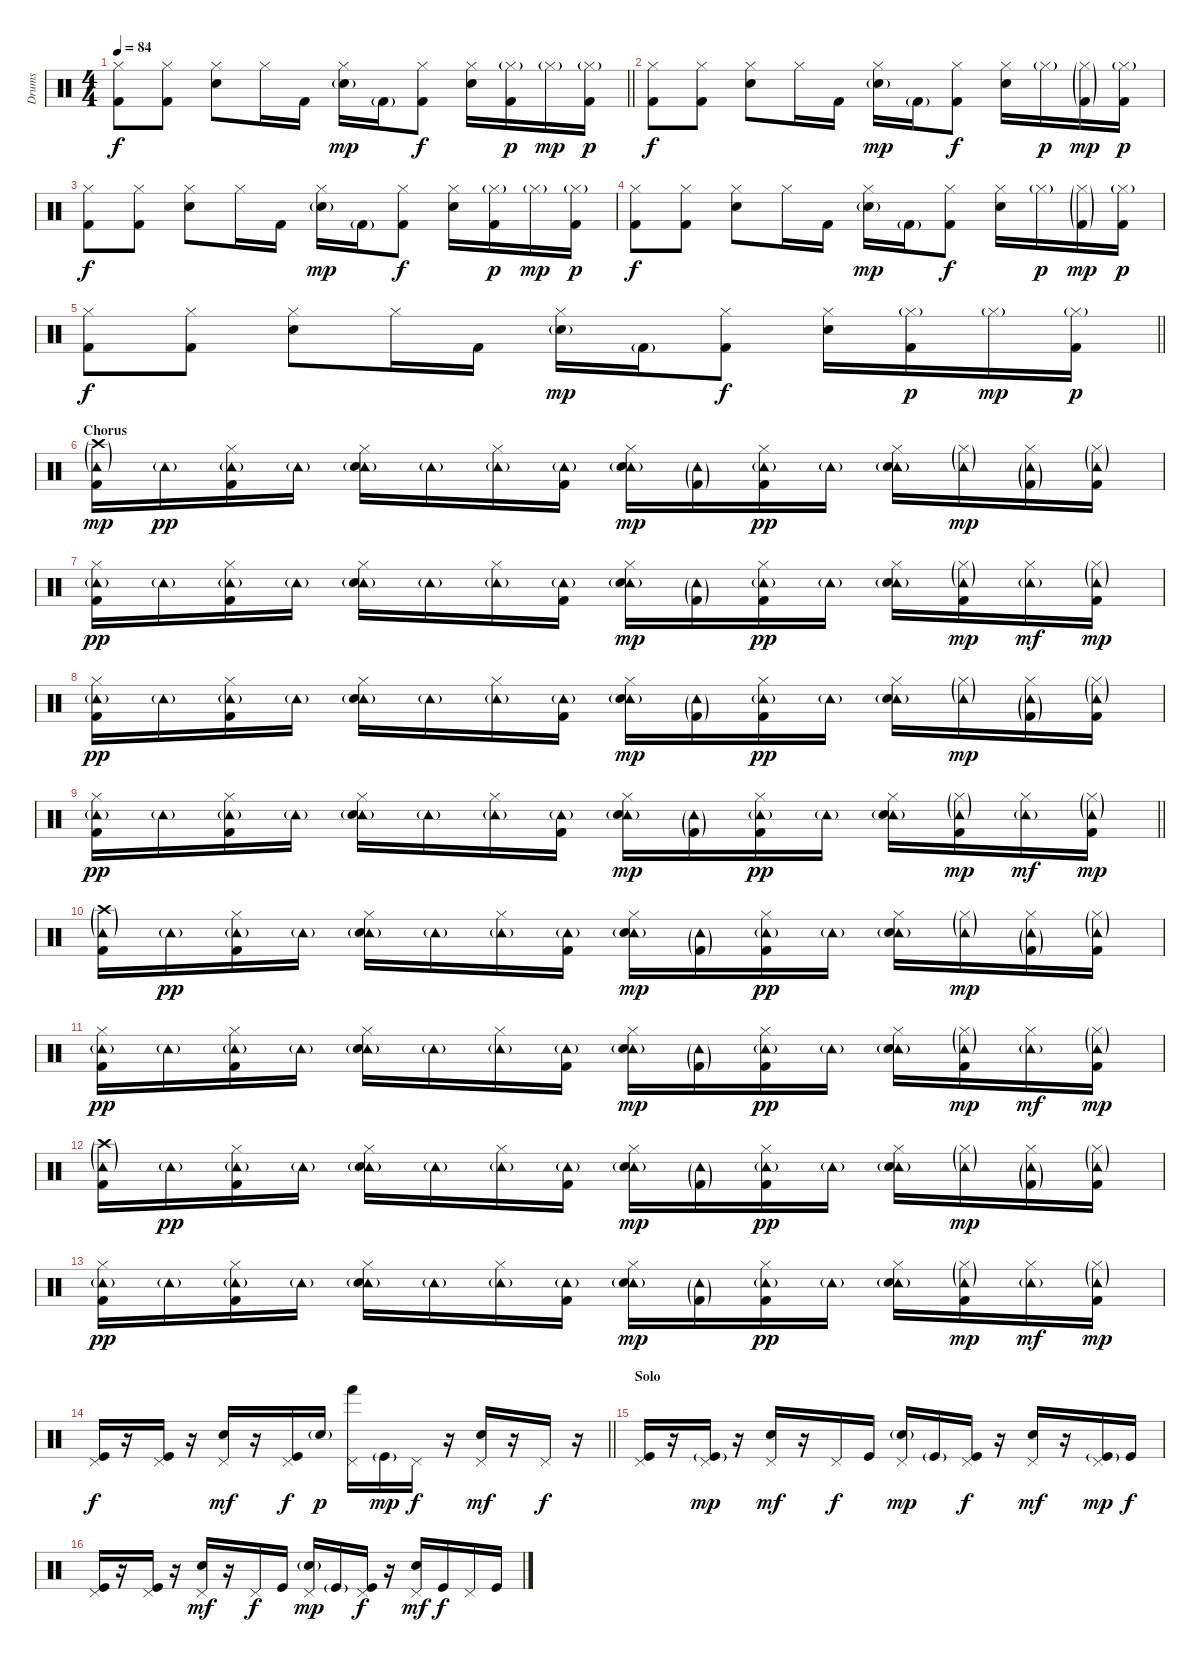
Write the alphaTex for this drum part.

\track ("Drums" "Drums") {instrument percussion}
\staff {score}
\articulation defaults
\ts (4 4)
\tempo 84
\clef neutral
\barLineRight lightlight
\ks c
("Hi-Hat (closed)" "Kick (hit) 2").8{dy f} ("Hi-Hat (closed)" "Kick (hit) 2").8 ("Hi-Hat (closed)" "Electric Snare (hit)").8 "Hi-Hat (closed)".16 "Kick (hit) 2".16 ("Hi-Hat (closed)" "Electric Snare (hit)"{g}).16{dy mp} "Kick (hit) 2"{g}.16 ("Hi-Hat (closed)" "Kick (hit) 2").8{dy f} ("Hi-Hat (closed)" "Electric Snare (hit)").16 ("Hi-Hat (closed)"{g} "Kick (hit) 2").16{dy p} "Hi-Hat (closed)"{g}.16{dy mp} ("Hi-Hat (closed)"{g} "Kick (hit) 2").16{dy p} |
("Hi-Hat (closed)" "Kick (hit) 2").8{dy f} ("Hi-Hat (closed)" "Kick (hit) 2").8 ("Hi-Hat (closed)" "Electric Snare (hit)").8 "Hi-Hat (closed)".16 "Kick (hit) 2".16 ("Hi-Hat (closed)" "Electric Snare (hit)"{g}).16{dy mp} "Kick (hit) 2"{g}.16 ("Hi-Hat (closed)" "Kick (hit) 2").8{dy f} ("Hi-Hat (closed)" "Electric Snare (hit)").16 "Hi-Hat (closed)"{g}.16{dy p} ("Hi-Hat (closed)"{g} "Kick (hit) 2"{g}).16{dy mp} ("Hi-Hat (closed)"{g} "Kick (hit) 2").16{dy p} |
("Hi-Hat (closed)" "Kick (hit) 2").8{dy f} ("Hi-Hat (closed)" "Kick (hit) 2").8 ("Hi-Hat (closed)" "Electric Snare (hit)").8 "Hi-Hat (closed)".16 "Kick (hit) 2".16 ("Hi-Hat (closed)" "Electric Snare (hit)"{g}).16{dy mp} "Kick (hit) 2"{g}.16 ("Hi-Hat (closed)" "Kick (hit) 2").8{dy f} ("Hi-Hat (closed)" "Electric Snare (hit)").16 ("Hi-Hat (closed)"{g} "Kick (hit) 2").16{dy p} "Hi-Hat (closed)"{g}.16{dy mp} ("Hi-Hat (closed)"{g} "Kick (hit) 2").16{dy p} |
("Hi-Hat (closed)" "Kick (hit) 2").8{dy f} ("Hi-Hat (closed)" "Kick (hit) 2").8 ("Hi-Hat (closed)" "Electric Snare (hit)").8 "Hi-Hat (closed)".16 "Kick (hit) 2".16 ("Hi-Hat (closed)" "Electric Snare (hit)"{g}).16{dy mp} "Kick (hit) 2"{g}.16 ("Hi-Hat (closed)" "Kick (hit) 2").8{dy f} ("Hi-Hat (closed)" "Electric Snare (hit)").16 "Hi-Hat (closed)"{g}.16{dy p} ("Hi-Hat (closed)"{g} "Kick (hit) 2"{g}).16{dy mp} ("Hi-Hat (closed)"{g} "Kick (hit) 2").16{dy p} |
\barLineRight lightlight
("Hi-Hat (closed)" "Kick (hit) 2").8{dy f} ("Hi-Hat (closed)" "Kick (hit) 2").8 ("Hi-Hat (closed)" "Electric Snare (hit)").8 "Hi-Hat (closed)".16 "Kick (hit) 2".16 ("Hi-Hat (closed)" "Electric Snare (hit)"{g}).16{dy mp} "Kick (hit) 2"{g}.16 ("Hi-Hat (closed)" "Kick (hit) 2").8{dy f} ("Hi-Hat (closed)" "Electric Snare (hit)").16 ("Hi-Hat (closed)"{g} "Kick (hit) 2").16{dy p} "Hi-Hat (closed)"{g}.16{dy mp} ("Hi-Hat (closed)"{g} "Kick (hit) 2").16{dy p} |
\section ("" "Chorus")
("Tambourine (hit)"{g} "Crash high (hit)"{g} "Kick (hit) 2").16{dy mp} "Tambourine (hit)"{g}.16{dy pp} ("Tambourine (hit)"{g} "Hi-Hat (closed)" "Kick (hit) 2").16 "Tambourine (hit)"{g}.16 ("Tambourine (hit)"{g} "Hi-Hat (closed)" "Electric Snare (hit)").16 "Tambourine (hit)"{g}.16 ("Tambourine (hit)"{g} "Hi-Hat (closed)").16 ("Tambourine (hit)"{g} "Kick (hit) 2").16 ("Tambourine (hit)"{g} "Hi-Hat (closed)" "Electric Snare (hit)"{g}).16{dy mp} ("Tambourine (hit)"{g} "Kick (hit) 2"{g}).16 ("Tambourine (hit)"{g} "Hi-Hat (closed)" "Kick (hit) 2").16{dy pp} "Tambourine (hit)"{g}.16 ("Tambourine (hit)"{g} "Hi-Hat (closed)" "Electric Snare (hit)").16 ("Tambourine (hit)"{g} "Hi-Hat (closed)"{g}).16{dy mp} ("Tambourine (hit)"{g} "Hi-Hat (closed)" "Kick (hit) 2"{g}).16 ("Tambourine (hit)"{g} "Hi-Hat (closed)"{g} "Kick (hit) 2").16 |
("Tambourine (hit)"{g} "Hi-Hat (closed)" "Kick (hit) 2").16{dy pp} "Tambourine (hit)"{g}.16 ("Tambourine (hit)"{g} "Hi-Hat (closed)" "Kick (hit) 2").16 "Tambourine (hit)"{g}.16 ("Tambourine (hit)"{g} "Hi-Hat (closed)" "Electric Snare (hit)").16 "Tambourine (hit)"{g}.16 ("Tambourine (hit)"{g} "Hi-Hat (closed)").16 ("Tambourine (hit)"{g} "Kick (hit) 2").16 ("Tambourine (hit)"{g} "Hi-Hat (closed)" "Electric Snare (hit)"{g}).16{dy mp} ("Tambourine (hit)"{g} "Kick (hit) 2"{g}).16 ("Tambourine (hit)"{g} "Hi-Hat (closed)" "Kick (hit) 2").16{dy pp} "Tambourine (hit)"{g}.16 ("Tambourine (hit)"{g} "Hi-Hat (closed)" "Electric Snare (hit)").16 ("Tambourine (hit)"{g} "Hi-Hat (closed)"{g} "Kick (hit) 2").16{dy mp} ("Tambourine (hit)"{g} "Hi-Hat (closed)").16{dy mf} ("Tambourine (hit)"{g} "Hi-Hat (closed)"{g} "Kick (hit) 2").16{dy mp} |
("Tambourine (hit)"{g} "Hi-Hat (closed)" "Kick (hit) 2").16{dy pp} "Tambourine (hit)"{g}.16 ("Tambourine (hit)"{g} "Hi-Hat (closed)" "Kick (hit) 2").16 "Tambourine (hit)"{g}.16 ("Tambourine (hit)"{g} "Hi-Hat (closed)" "Electric Snare (hit)").16 "Tambourine (hit)"{g}.16 ("Tambourine (hit)"{g} "Hi-Hat (closed)").16 ("Tambourine (hit)"{g} "Kick (hit) 2").16 ("Tambourine (hit)"{g} "Hi-Hat (closed)" "Electric Snare (hit)"{g}).16{dy mp} ("Tambourine (hit)"{g} "Kick (hit) 2"{g}).16 ("Tambourine (hit)"{g} "Hi-Hat (closed)" "Kick (hit) 2").16{dy pp} "Tambourine (hit)"{g}.16 ("Tambourine (hit)"{g} "Hi-Hat (closed)" "Electric Snare (hit)").16 ("Tambourine (hit)"{g} "Hi-Hat (closed)"{g}).16{dy mp} ("Tambourine (hit)"{g} "Hi-Hat (closed)" "Kick (hit) 2"{g}).16 ("Tambourine (hit)"{g} "Hi-Hat (closed)"{g} "Kick (hit) 2").16 |
\barLineRight lightlight
("Tambourine (hit)"{g} "Hi-Hat (closed)" "Kick (hit) 2").16{dy pp} "Tambourine (hit)"{g}.16 ("Tambourine (hit)"{g} "Hi-Hat (closed)" "Kick (hit) 2").16 "Tambourine (hit)"{g}.16 ("Tambourine (hit)"{g} "Hi-Hat (closed)" "Electric Snare (hit)").16 "Tambourine (hit)"{g}.16 ("Tambourine (hit)"{g} "Hi-Hat (closed)").16 ("Tambourine (hit)"{g} "Kick (hit) 2").16 ("Tambourine (hit)"{g} "Hi-Hat (closed)" "Electric Snare (hit)"{g}).16{dy mp} ("Tambourine (hit)"{g} "Kick (hit) 2"{g}).16 ("Tambourine (hit)"{g} "Hi-Hat (closed)" "Kick (hit) 2").16{dy pp} "Tambourine (hit)"{g}.16 ("Tambourine (hit)"{g} "Hi-Hat (closed)" "Electric Snare (hit)").16 ("Tambourine (hit)"{g} "Hi-Hat (closed)"{g} "Kick (hit) 2").16{dy mp} ("Tambourine (hit)"{g} "Hi-Hat (closed)").16{dy mf} ("Tambourine (hit)"{g} "Hi-Hat (closed)"{g} "Kick (hit) 2").16{dy mp} |
("Tambourine (hit)"{g} "Crash high (hit)"{g} "Kick (hit) 2").16 "Tambourine (hit)"{g}.16{dy pp} ("Tambourine (hit)"{g} "Hi-Hat (closed)" "Kick (hit) 2").16 "Tambourine (hit)"{g}.16 ("Tambourine (hit)"{g} "Hi-Hat (closed)" "Electric Snare (hit)").16 "Tambourine (hit)"{g}.16 ("Tambourine (hit)"{g} "Hi-Hat (closed)").16 ("Tambourine (hit)"{g} "Kick (hit) 2").16 ("Tambourine (hit)"{g} "Hi-Hat (closed)" "Electric Snare (hit)"{g}).16{dy mp} ("Tambourine (hit)"{g} "Kick (hit) 2"{g}).16 ("Tambourine (hit)"{g} "Hi-Hat (closed)" "Kick (hit) 2").16{dy pp} "Tambourine (hit)"{g}.16 ("Tambourine (hit)"{g} "Hi-Hat (closed)" "Electric Snare (hit)").16 ("Tambourine (hit)"{g} "Hi-Hat (closed)"{g}).16{dy mp} ("Tambourine (hit)"{g} "Hi-Hat (closed)" "Kick (hit) 2"{g}).16 ("Tambourine (hit)"{g} "Hi-Hat (closed)"{g} "Kick (hit) 2").16 |
("Tambourine (hit)"{g} "Hi-Hat (closed)" "Kick (hit) 2").16{dy pp} "Tambourine (hit)"{g}.16 ("Tambourine (hit)"{g} "Hi-Hat (closed)" "Kick (hit) 2").16 "Tambourine (hit)"{g}.16 ("Tambourine (hit)"{g} "Hi-Hat (closed)" "Electric Snare (hit)").16 "Tambourine (hit)"{g}.16 ("Tambourine (hit)"{g} "Hi-Hat (closed)").16 ("Tambourine (hit)"{g} "Kick (hit) 2").16 ("Tambourine (hit)"{g} "Hi-Hat (closed)" "Electric Snare (hit)"{g}).16{dy mp} ("Tambourine (hit)"{g} "Kick (hit) 2"{g}).16 ("Tambourine (hit)"{g} "Hi-Hat (closed)" "Kick (hit) 2").16{dy pp} "Tambourine (hit)"{g}.16 ("Tambourine (hit)"{g} "Hi-Hat (closed)" "Electric Snare (hit)").16 ("Tambourine (hit)"{g} "Hi-Hat (closed)"{g} "Kick (hit) 2").16{dy mp} ("Tambourine (hit)"{g} "Hi-Hat (closed)").16{dy mf} ("Tambourine (hit)"{g} "Hi-Hat (closed)"{g} "Kick (hit) 2").16{dy mp} |
("Tambourine (hit)"{g} "Crash high (hit)"{g} "Kick (hit) 2").16 "Tambourine (hit)"{g}.16{dy pp} ("Tambourine (hit)"{g} "Hi-Hat (closed)" "Kick (hit) 2").16 "Tambourine (hit)"{g}.16 ("Tambourine (hit)"{g} "Hi-Hat (closed)" "Electric Snare (hit)").16 "Tambourine (hit)"{g}.16 ("Tambourine (hit)"{g} "Hi-Hat (closed)").16 ("Tambourine (hit)"{g} "Kick (hit) 2").16 ("Tambourine (hit)"{g} "Hi-Hat (closed)" "Electric Snare (hit)"{g}).16{dy mp} ("Tambourine (hit)"{g} "Kick (hit) 2"{g}).16 ("Tambourine (hit)"{g} "Hi-Hat (closed)" "Kick (hit) 2").16{dy pp} "Tambourine (hit)"{g}.16 ("Tambourine (hit)"{g} "Hi-Hat (closed)" "Electric Snare (hit)").16 ("Tambourine (hit)"{g} "Hi-Hat (closed)"{g}).16{dy mp} ("Tambourine (hit)"{g} "Hi-Hat (closed)" "Kick (hit) 2"{g}).16 ("Tambourine (hit)"{g} "Hi-Hat (closed)"{g} "Kick (hit) 2").16 |
("Tambourine (hit)"{g} "Hi-Hat (closed)" "Kick (hit) 2").16{dy pp} "Tambourine (hit)"{g}.16 ("Tambourine (hit)"{g} "Hi-Hat (closed)" "Kick (hit) 2").16 "Tambourine (hit)"{g}.16 ("Tambourine (hit)"{g} "Hi-Hat (closed)" "Electric Snare (hit)").16 "Tambourine (hit)"{g}.16 ("Tambourine (hit)"{g} "Hi-Hat (closed)").16 ("Tambourine (hit)"{g} "Kick (hit) 2").16 ("Tambourine (hit)"{g} "Hi-Hat (closed)" "Electric Snare (hit)"{g}).16{dy mp} ("Tambourine (hit)"{g} "Kick (hit) 2"{g}).16 ("Tambourine (hit)"{g} "Hi-Hat (closed)" "Kick (hit) 2").16{dy pp} "Tambourine (hit)"{g}.16 ("Tambourine (hit)"{g} "Hi-Hat (closed)" "Electric Snare (hit)").16 ("Tambourine (hit)"{g} "Hi-Hat (closed)"{g} "Kick (hit) 2").16{dy mp} ("Tambourine (hit)"{g} "Hi-Hat (closed)").16{dy mf} ("Tambourine (hit)"{g} "Hi-Hat (closed)"{g} "Kick (hit) 2").16{dy mp} |
\barLineRight lightlight
("Pedal Hi-Hat (hit)" "Kick (hit)").16{dy f} r.16 ("Pedal Hi-Hat (hit)" "Kick (hit)").16 r.16 ("Pedal Hi-Hat (hit)" "Electric Snare (hit)").16{dy mf} r.16 ("Pedal Hi-Hat (hit)" "Kick (hit)").16{dy f} "Electric Snare (hit)"{g}.16{dy p} ("Pedal Hi-Hat (hit)" "Hand (hit)").16 "Kick (hit)"{g}.16{dy mp} "Pedal Hi-Hat (hit)".16{dy f} r.16 ("Pedal Hi-Hat (hit)" "Electric Snare (hit)").16{dy mf} r.16 "Pedal Hi-Hat (hit)".16{dy f} r.16 |
\section ("" "Solo")
("Pedal Hi-Hat (hit)" "Kick (hit)").16 r.16 ("Pedal Hi-Hat (hit)" "Kick (hit)"{g}).16{dy mp} r.16 ("Pedal Hi-Hat (hit)" "Electric Snare (hit)").16{dy mf} r.16 "Pedal Hi-Hat (hit)".16{dy f} "Kick (hit)".16 ("Pedal Hi-Hat (hit)" "Electric Snare (hit)"{g}).16{dy mp} "Kick (hit)"{g}.16 ("Pedal Hi-Hat (hit)" "Kick (hit)").16{dy f} r.16 ("Pedal Hi-Hat (hit)" "Electric Snare (hit)").16{dy mf} r.16 ("Pedal Hi-Hat (hit)" "Kick (hit)"{g}).16{dy mp} "Kick (hit)".16{dy f} |
("Pedal Hi-Hat (hit)" "Kick (hit)").16 r.16 ("Pedal Hi-Hat (hit)" "Kick (hit)").16 r.16 ("Pedal Hi-Hat (hit)" "Electric Snare (hit)").16{dy mf} r.16 "Pedal Hi-Hat (hit)".16{dy f} "Kick (hit)".16 ("Pedal Hi-Hat (hit)" "Electric Snare (hit)"{g}).16{dy mp} "Kick (hit)"{g}.16 ("Pedal Hi-Hat (hit)" "Kick (hit)").16{dy f} r.16 ("Pedal Hi-Hat (hit)" "Electric Snare (hit)").16{dy mf} "Kick (hit)".16{dy f} "Pedal Hi-Hat (hit)".16 "Kick (hit)".16
